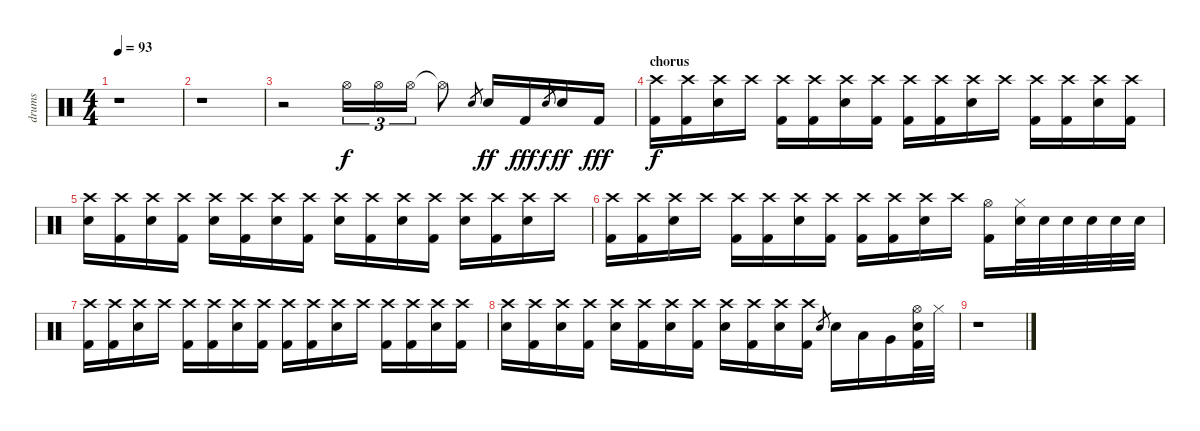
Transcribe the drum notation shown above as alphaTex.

\track ("drums" "drums") {instrument percussion}
\staff {score}
\articulation defaults
\ts (4 4)
\tempo 93
\clef neutral
\ks c
r.1{dy f} |
r.1 |
r.2 "Hi-Hat (open)".16{tu (3 2)} "Hi-Hat (open)".16{tu (3 2)} "Hi-Hat (open)".16{tu (3 2)} "Hi-Hat (open)"{t}.8 "Electric Snare (hit)".8{gr} "Electric Snare (hit)".16{dy ff} "Kick (hit) 2".16{dy fff} "Electric Snare (hit)".8{gr dy f} "Electric Snare (hit)".16{dy ff} "Kick (hit) 2".16{dy fff} |
\section ("" "chorus")
("Crash high (hit)" "Kick (hit) 2").16{dy f} ("Crash high (hit)" "Kick (hit) 2").16 ("Crash high (hit)" "Electric Snare (hit)").16 "Crash high (hit)".16 ("Crash high (hit)" "Kick (hit) 2").16 ("Crash high (hit)" "Kick (hit) 2").16 ("Crash high (hit)" "Electric Snare (hit)").16 ("Crash high (hit)" "Kick (hit) 2").16 ("Crash high (hit)" "Kick (hit) 2").16 ("Crash high (hit)" "Kick (hit) 2").16 ("Crash high (hit)" "Electric Snare (hit)").16 "Crash high (hit)".16 ("Crash high (hit)" "Kick (hit) 2").16 ("Crash high (hit)" "Kick (hit) 2").16 ("Crash high (hit)" "Electric Snare (hit)").16 ("Crash high (hit)" "Kick (hit) 2").16 |
("Crash high (hit)" "Electric Snare (hit)").16 ("Crash high (hit)" "Kick (hit) 2").16 ("Crash high (hit)" "Electric Snare (hit)").16 ("Crash high (hit)" "Kick (hit) 2").16 ("Crash high (hit)" "Electric Snare (hit)").16 ("Crash high (hit)" "Kick (hit) 2").16 ("Crash high (hit)" "Electric Snare (hit)").16 ("Crash high (hit)" "Kick (hit) 2").16 ("Crash high (hit)" "Electric Snare (hit)").16 ("Crash high (hit)" "Kick (hit) 2").16 ("Crash high (hit)" "Electric Snare (hit)").16 ("Crash high (hit)" "Kick (hit) 2").16 ("Crash high (hit)" "Electric Snare (hit)").16 ("Crash high (hit)" "Kick (hit) 2").16 ("Crash high (hit)" "Electric Snare (hit)").16 "Crash high (hit)".16 |
("Crash high (hit)" "Kick (hit) 2").16 ("Crash high (hit)" "Kick (hit) 2").16 ("Crash high (hit)" "Electric Snare (hit)").16 "Crash high (hit)".16 ("Crash high (hit)" "Kick (hit) 2").16 ("Crash high (hit)" "Kick (hit) 2").16 ("Crash high (hit)" "Electric Snare (hit)").16 ("Crash high (hit)" "Kick (hit) 2").16 ("Crash high (hit)" "Kick (hit) 2").16 ("Crash high (hit)" "Kick (hit) 2").16 ("Crash high (hit)" "Electric Snare (hit)").16 "Crash high (hit)".16 ("Hi-Hat (open)" "Kick (hit) 2").16 ("Hi-Hat (closed)" "Electric Snare (hit)").32 "Electric Snare (hit)".32 "Electric Snare (hit)".32 "Electric Snare (hit)".32 "Electric Snare (hit)".32 "Electric Snare (hit)".32 |
("Crash high (hit)" "Kick (hit) 2").16 ("Crash high (hit)" "Kick (hit) 2").16 ("Crash high (hit)" "Electric Snare (hit)").16 "Crash high (hit)".16 ("Crash high (hit)" "Kick (hit) 2").16 ("Crash high (hit)" "Kick (hit) 2").16 ("Crash high (hit)" "Electric Snare (hit)").16 ("Crash high (hit)" "Kick (hit) 2").16 ("Crash high (hit)" "Kick (hit) 2").16 ("Crash high (hit)" "Kick (hit) 2").16 ("Crash high (hit)" "Electric Snare (hit)").16 "Crash high (hit)".16 ("Crash high (hit)" "Kick (hit) 2").16 ("Crash high (hit)" "Kick (hit) 2").16 ("Crash high (hit)" "Electric Snare (hit)").16 ("Crash high (hit)" "Kick (hit) 2").16 |
("Crash high (hit)" "Electric Snare (hit)").16 ("Crash high (hit)" "Kick (hit) 2").16 ("Crash high (hit)" "Electric Snare (hit)").16 ("Crash high (hit)" "Kick (hit) 2").16 ("Crash high (hit)" "Electric Snare (hit)").16 ("Crash high (hit)" "Kick (hit) 2").16 ("Crash high (hit)" "Electric Snare (hit)").16 ("Crash high (hit)" "Kick (hit) 2").16 ("Crash high (hit)" "Electric Snare (hit)").16 ("Crash high (hit)" "Kick (hit) 2").16 ("Crash high (hit)" "Electric Snare (hit)").16 ("Crash high (hit)" "Kick (hit) 2").16 "Electric Snare (hit)".8{gr} "Electric Snare (hit)".16 "Low Tom (hit)".16 "Very Low Tom (hit)".16 ("Hi-Hat (open)" "Electric Snare (hit)" "Kick (hit) 2").32 "Hi-Hat (closed)".32 |
r.1
